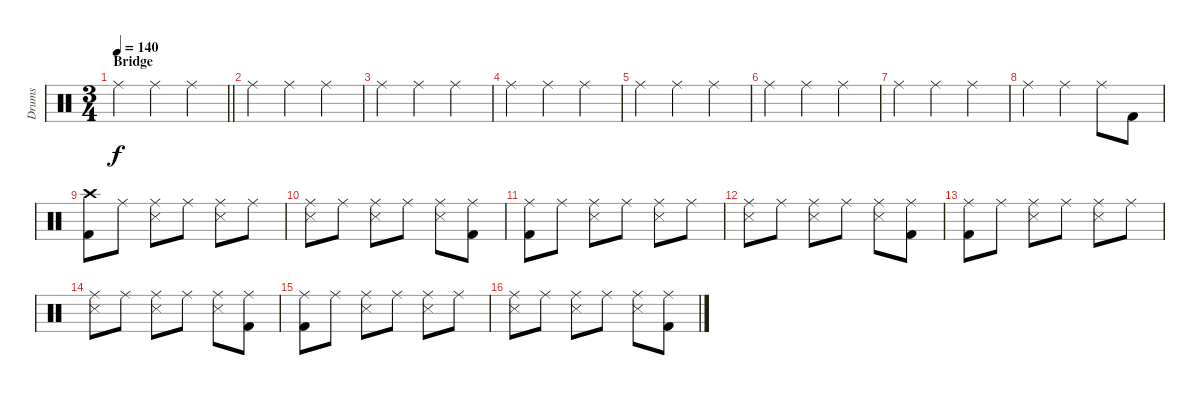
\track ("Drums" "Drums") {instrument percussion}
\staff {score}
\articulation defaults
\ts (3 4)
\section ("" "Bridge")
\tempo 140
\clef neutral
\barLineRight lightlight
\ks c "Ride (middle)".4{dy f} "Ride (middle)".4 "Ride (middle)".4
|
"Ride (middle)".4 "Ride (middle)".4 "Ride (middle)".4 |
"Ride (middle)".4 "Ride (middle)".4 "Ride (middle)".4 |
"Ride (middle)".4 "Ride (middle)".4 "Ride (middle)".4 |
"Ride (middle)".4 "Ride (middle)".4 "Ride (middle)".4 |
"Ride (middle)".4 "Ride (middle)".4 "Ride (middle)".4 |
"Ride (middle)".4 "Ride (middle)".4 "Ride (middle)".4 |
"Ride (middle)".4 "Ride (middle)".4 "Ride (middle)".8 "Kick (hit) 2".8 |
("Kick (hit) 2" "Crash high (hit)").8 "Ride (middle)".8 ("Snare (side stick) 3" "Ride (middle)").8 "Ride (middle)".8 ("Snare (side stick) 3" "Ride (middle)").8 "Ride (middle)".8 |
("Snare (side stick) 3" "Ride (middle)").8 "Ride (middle)".8 ("Snare (side stick) 3" "Ride (middle)").8 "Ride (middle)".8 ("Snare (side stick) 3" "Ride (middle)").8 ("Kick (hit) 2" "Ride (middle)").8 |
("Kick (hit) 2" "Ride (middle)").8 "Ride (middle)".8 ("Snare (side stick) 3" "Ride (middle)").8 "Ride (middle)".8 ("Snare (side stick) 3" "Ride (middle)").8 "Ride (middle)".8 |
("Snare (side stick) 3" "Ride (middle)").8 "Ride (middle)".8 ("Snare (side stick) 3" "Ride (middle)").8 "Ride (middle)".8 ("Snare (side stick) 3" "Ride (middle)").8 ("Kick (hit) 2" "Ride (middle)").8 |
("Kick (hit) 2" "Ride (middle)").8 "Ride (middle)".8 ("Snare (side stick) 3" "Ride (middle)").8 "Ride (middle)".8 ("Snare (side stick) 3" "Ride (middle)").8 "Ride (middle)".8 |
("Snare (side stick) 3" "Ride (middle)").8 "Ride (middle)".8 ("Snare (side stick) 3" "Ride (middle)").8 "Ride (middle)".8 ("Snare (side stick) 3" "Ride (middle)").8 ("Kick (hit) 2" "Ride (middle)").8 |
("Kick (hit) 2" "Ride (middle)").8 "Ride (middle)".8 ("Snare (side stick) 3" "Ride (middle)").8 "Ride (middle)".8 ("Snare (side stick) 3" "Ride (middle)").8 "Ride (middle)".8 |
("Snare (side stick) 3" "Ride (middle)").8 "Ride (middle)".8 ("Snare (side stick) 3" "Ride (middle)").8 "Ride (middle)".8 ("Snare (side stick) 3" "Ride (middle)").8 ("Kick (hit) 2" "Ride (middle)").8
